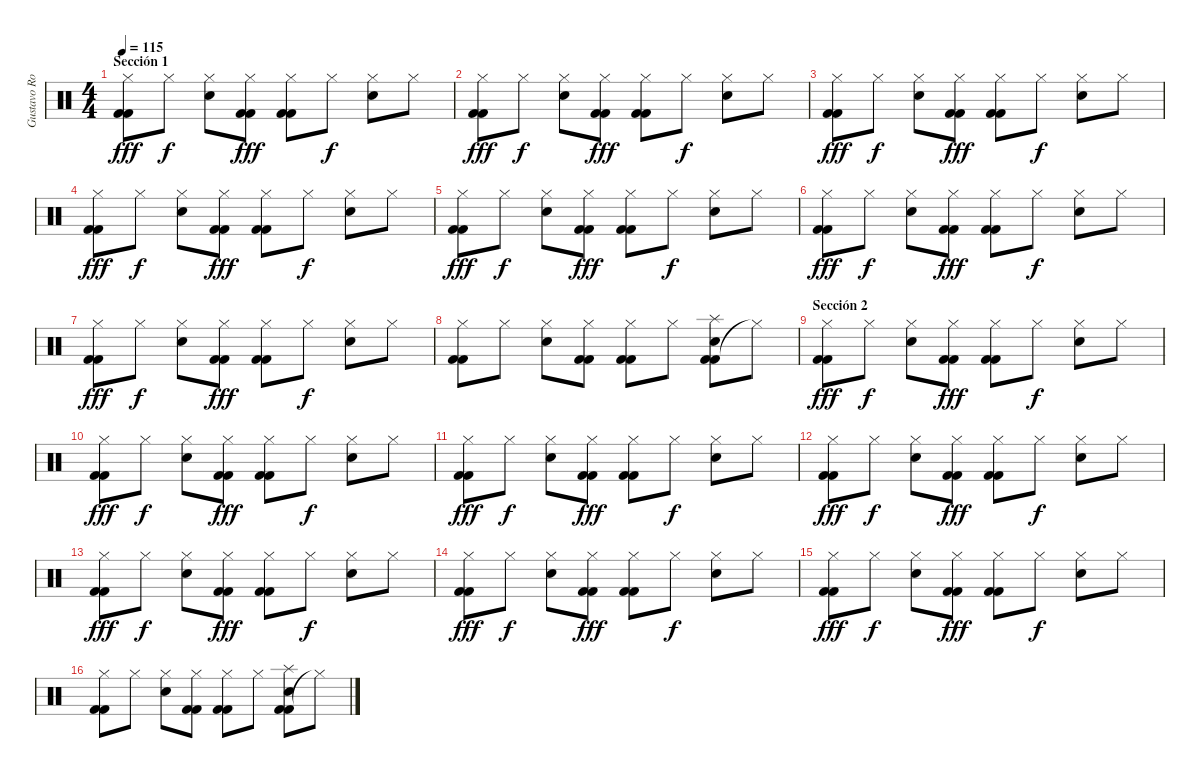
\track ("Gustavo Rowek" "Gustavo Ro") {instrument percussion}
\staff {score}
\articulation defaults
\ts (4 4)
\section ("" "Sección 1")
\tempo 115
\clef neutral
\ks c
("Kick (hit) 2" "Kick (hit) 2" "Hi-Hat (closed)").8{dy fff} "Hi-Hat (closed)".8{dy f} ("Snare (hit) 2" "Hi-Hat (closed)").8 ("Kick (hit) 2" "Kick (hit) 2" "Hi-Hat (closed)").8{dy fff} ("Kick (hit) 2" "Kick (hit) 2" "Hi-Hat (closed)").8 "Hi-Hat (closed)".8{dy f} ("Snare (hit) 2" "Hi-Hat (closed)").8 "Hi-Hat (closed)".8 |
("Kick (hit) 2" "Kick (hit) 2" "Hi-Hat (closed)").8{dy fff} "Hi-Hat (closed)".8{dy f} ("Snare (hit) 2" "Hi-Hat (closed)").8 ("Kick (hit) 2" "Kick (hit) 2" "Hi-Hat (closed)").8{dy fff} ("Kick (hit) 2" "Kick (hit) 2" "Hi-Hat (closed)").8 "Hi-Hat (closed)".8{dy f} ("Snare (hit) 2" "Hi-Hat (closed)").8 "Hi-Hat (closed)".8 |
("Kick (hit) 2" "Kick (hit) 2" "Hi-Hat (closed)").8{dy fff} "Hi-Hat (closed)".8{dy f} ("Snare (hit) 2" "Hi-Hat (closed)").8 ("Kick (hit) 2" "Kick (hit) 2" "Hi-Hat (closed)").8{dy fff} ("Kick (hit) 2" "Kick (hit) 2" "Hi-Hat (closed)").8 "Hi-Hat (closed)".8{dy f} ("Snare (hit) 2" "Hi-Hat (closed)").8 "Hi-Hat (closed)".8 |
("Kick (hit) 2" "Kick (hit) 2" "Hi-Hat (closed)").8{dy fff} "Hi-Hat (closed)".8{dy f} ("Snare (hit) 2" "Hi-Hat (closed)").8 ("Kick (hit) 2" "Kick (hit) 2" "Hi-Hat (closed)").8{dy fff} ("Kick (hit) 2" "Kick (hit) 2" "Hi-Hat (closed)").8 "Hi-Hat (closed)".8{dy f} ("Snare (hit) 2" "Hi-Hat (closed)").8 "Hi-Hat (closed)".8 |
("Kick (hit) 2" "Kick (hit) 2" "Hi-Hat (closed)").8{dy fff} "Hi-Hat (closed)".8{dy f} ("Snare (hit) 2" "Hi-Hat (closed)").8 ("Kick (hit) 2" "Kick (hit) 2" "Hi-Hat (closed)").8{dy fff} ("Kick (hit) 2" "Kick (hit) 2" "Hi-Hat (closed)").8 "Hi-Hat (closed)".8{dy f} ("Snare (hit) 2" "Hi-Hat (closed)").8 "Hi-Hat (closed)".8 |
("Kick (hit) 2" "Kick (hit) 2" "Hi-Hat (closed)").8{dy fff} "Hi-Hat (closed)".8{dy f} ("Snare (hit) 2" "Hi-Hat (closed)").8 ("Kick (hit) 2" "Kick (hit) 2" "Hi-Hat (closed)").8{dy fff} ("Kick (hit) 2" "Kick (hit) 2" "Hi-Hat (closed)").8 "Hi-Hat (closed)".8{dy f} ("Snare (hit) 2" "Hi-Hat (closed)").8 "Hi-Hat (closed)".8 |
("Kick (hit) 2" "Kick (hit) 2" "Hi-Hat (closed)").8{dy fff} "Hi-Hat (closed)".8{dy f} ("Snare (hit) 2" "Hi-Hat (closed)").8 ("Kick (hit) 2" "Kick (hit) 2" "Hi-Hat (closed)").8{dy fff} ("Kick (hit) 2" "Kick (hit) 2" "Hi-Hat (closed)").8 "Hi-Hat (closed)".8{dy f} ("Snare (hit) 2" "Hi-Hat (closed)").8 "Hi-Hat (closed)".8 |
("Kick (hit) 2" "Kick (hit) 2" "Hi-Hat (closed)").8 "Hi-Hat (closed)".8 ("Snare (hit) 2" "Hi-Hat (closed)").8 ("Kick (hit) 2" "Kick (hit) 2" "Hi-Hat (closed)").8 ("Kick (hit) 2" "Kick (hit) 2" "Hi-Hat (closed)").8 "Hi-Hat (closed)".8 ("Kick (hit) 2" "Kick (hit) 2" "Snare (hit) 2" "Splash (hit)").8 "Hi-Hat (closed)"{t}.8 |
\section ("" "Sección 2")
("Kick (hit) 2" "Kick (hit) 2" "Hi-Hat (closed)").8{dy fff} "Hi-Hat (closed)".8{dy f} ("Snare (hit) 2" "Hi-Hat (closed)").8 ("Kick (hit) 2" "Kick (hit) 2" "Hi-Hat (closed)").8{dy fff} ("Kick (hit) 2" "Kick (hit) 2" "Hi-Hat (closed)").8 "Hi-Hat (closed)".8{dy f} ("Snare (hit) 2" "Hi-Hat (closed)").8 "Hi-Hat (closed)".8 |
("Kick (hit) 2" "Kick (hit) 2" "Hi-Hat (closed)").8{dy fff} "Hi-Hat (closed)".8{dy f} ("Snare (hit) 2" "Hi-Hat (closed)").8 ("Kick (hit) 2" "Kick (hit) 2" "Hi-Hat (closed)").8{dy fff} ("Kick (hit) 2" "Kick (hit) 2" "Hi-Hat (closed)").8 "Hi-Hat (closed)".8{dy f} ("Snare (hit) 2" "Hi-Hat (closed)").8 "Hi-Hat (closed)".8 |
("Kick (hit) 2" "Kick (hit) 2" "Hi-Hat (closed)").8{dy fff} "Hi-Hat (closed)".8{dy f} ("Snare (hit) 2" "Hi-Hat (closed)").8 ("Kick (hit) 2" "Kick (hit) 2" "Hi-Hat (closed)").8{dy fff} ("Kick (hit) 2" "Kick (hit) 2" "Hi-Hat (closed)").8 "Hi-Hat (closed)".8{dy f} ("Snare (hit) 2" "Hi-Hat (closed)").8 "Hi-Hat (closed)".8 |
("Kick (hit) 2" "Kick (hit) 2" "Hi-Hat (closed)").8{dy fff} "Hi-Hat (closed)".8{dy f} ("Snare (hit) 2" "Hi-Hat (closed)").8 ("Kick (hit) 2" "Kick (hit) 2" "Hi-Hat (closed)").8{dy fff} ("Kick (hit) 2" "Kick (hit) 2" "Hi-Hat (closed)").8 "Hi-Hat (closed)".8{dy f} ("Snare (hit) 2" "Hi-Hat (closed)").8 "Hi-Hat (closed)".8 |
("Kick (hit) 2" "Kick (hit) 2" "Hi-Hat (closed)").8{dy fff} "Hi-Hat (closed)".8{dy f} ("Snare (hit) 2" "Hi-Hat (closed)").8 ("Kick (hit) 2" "Kick (hit) 2" "Hi-Hat (closed)").8{dy fff} ("Kick (hit) 2" "Kick (hit) 2" "Hi-Hat (closed)").8 "Hi-Hat (closed)".8{dy f} ("Snare (hit) 2" "Hi-Hat (closed)").8 "Hi-Hat (closed)".8 |
("Kick (hit) 2" "Kick (hit) 2" "Hi-Hat (closed)").8{dy fff} "Hi-Hat (closed)".8{dy f} ("Snare (hit) 2" "Hi-Hat (closed)").8 ("Kick (hit) 2" "Kick (hit) 2" "Hi-Hat (closed)").8{dy fff} ("Kick (hit) 2" "Kick (hit) 2" "Hi-Hat (closed)").8 "Hi-Hat (closed)".8{dy f} ("Snare (hit) 2" "Hi-Hat (closed)").8 "Hi-Hat (closed)".8 |
("Kick (hit) 2" "Kick (hit) 2" "Hi-Hat (closed)").8{dy fff} "Hi-Hat (closed)".8{dy f} ("Snare (hit) 2" "Hi-Hat (closed)").8 ("Kick (hit) 2" "Kick (hit) 2" "Hi-Hat (closed)").8{dy fff} ("Kick (hit) 2" "Kick (hit) 2" "Hi-Hat (closed)").8 "Hi-Hat (closed)".8{dy f} ("Snare (hit) 2" "Hi-Hat (closed)").8 "Hi-Hat (closed)".8 |
("Kick (hit) 2" "Kick (hit) 2" "Hi-Hat (closed)").8 "Hi-Hat (closed)".8 ("Snare (hit) 2" "Hi-Hat (closed)").8 ("Kick (hit) 2" "Kick (hit) 2" "Hi-Hat (closed)").8 ("Kick (hit) 2" "Kick (hit) 2" "Hi-Hat (closed)").8 "Hi-Hat (closed)".8 ("Kick (hit) 2" "Kick (hit) 2" "Snare (hit) 2" "Splash (hit)").8 "Hi-Hat (closed)"{t}.8
